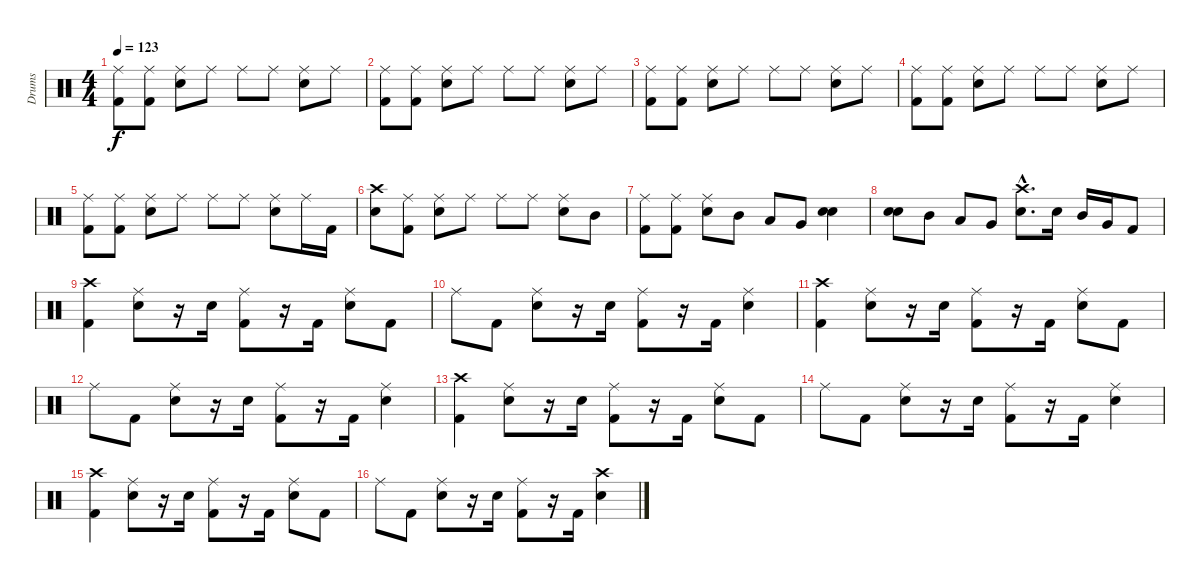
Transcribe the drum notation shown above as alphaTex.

\track ("Drums" "Drums") {instrument percussion}
\staff {score}
\articulation defaults
\ts (4 4)
\tempo 123
\clef neutral
\ks c
("Ride (middle)" "Kick (hit) 2").8{dy f} ("Ride (middle)" "Kick (hit) 2").8 ("Ride (middle)" "Snare (hit) 2").8 "Ride (middle)".8 "Ride (middle)".8 "Ride (middle)".8 ("Ride (middle)" "Snare (hit) 2").8 "Ride (middle)".8 |
("Ride (middle)" "Kick (hit) 2").8 ("Ride (middle)" "Kick (hit) 2").8 ("Ride (middle)" "Snare (hit) 2").8 "Ride (middle)".8 "Ride (middle)".8 "Ride (middle)".8 ("Ride (middle)" "Snare (hit) 2").8 "Ride (middle)".8 |
("Ride (middle)" "Kick (hit) 2").8 ("Ride (middle)" "Kick (hit) 2").8 ("Ride (middle)" "Snare (hit) 2").8 "Ride (middle)".8 "Ride (middle)".8 "Ride (middle)".8 ("Ride (middle)" "Snare (hit) 2").8 "Ride (middle)".8 |
("Ride (middle)" "Kick (hit) 2").8 ("Ride (middle)" "Kick (hit) 2").8 ("Ride (middle)" "Snare (hit) 2").8 "Ride (middle)".8 "Ride (middle)".8 "Ride (middle)".8 ("Ride (middle)" "Snare (hit) 2").8 "Ride (middle)".8 |
("Ride (middle)" "Kick (hit) 2").8 ("Ride (middle)" "Kick (hit) 2").8 ("Ride (middle)" "Snare (hit) 2").8 "Ride (middle)".8 "Ride (middle)".8 "Ride (middle)".8 ("Ride (middle)" "Snare (hit) 2").8 "Ride (middle)".16 "Kick (hit) 2".16 |
("Crash high (hit)" "Snare (hit) 2").8 ("Ride (middle)" "Kick (hit) 2").8 ("Ride (middle)" "Snare (hit) 2").8 "Ride (middle)".8 "Ride (middle)".8 "Ride (middle)".8 ("Ride (middle)" "Snare (hit) 2").8 "Mid Tom (hit)".8 |
("Ride (middle)" "Kick (hit) 2").8 ("Ride (middle)" "Kick (hit) 2").8 ("Ride (middle)" "Snare (hit) 2").8 "Mid Tom (hit)".8 "Low Tom (hit)".8 "Very Low Tom (hit)".8 ("Snare (hit) 2" "Snare (hit) 2").4 |
("Snare (hit) 2" "Snare (hit) 2").8 "Mid Tom (hit)".8 "Low Tom (hit)".8 "Very Low Tom (hit)".8 ("Crash high (hit)"{hac} "Snare (hit) 2"{hac}).8{d} "Snare (hit) 2".16 "Mid Tom (hit)".16 "Very Low Tom (hit)".16 "Kick (hit) 2".8 |
("Crash high (hit)" "Kick (hit) 2").4 ("Ride (middle)" "Snare (hit) 2").8 r.16 "Snare (hit) 2".16 ("Ride (middle)" "Kick (hit) 2").8 r.16 "Kick (hit) 2".16 ("Ride (middle)" "Snare (hit) 2").8 "Kick (hit) 2".8 |
"Ride (middle)".8 "Kick (hit) 2".8 ("Ride (middle)" "Snare (hit) 2").8 r.16 "Snare (hit) 2".16 ("Ride (middle)" "Kick (hit) 2").8 r.16 "Kick (hit) 2".16 ("Ride (middle)" "Snare (hit) 2").4 |
("Crash high (hit)" "Kick (hit) 2").4 ("Ride (middle)" "Snare (hit) 2").8 r.16 "Snare (hit) 2".16 ("Ride (middle)" "Kick (hit) 2").8 r.16 "Kick (hit) 2".16 ("Ride (middle)" "Snare (hit) 2").8 "Kick (hit) 2".8 |
"Ride (middle)".8 "Kick (hit) 2".8 ("Ride (middle)" "Snare (hit) 2").8 r.16 "Snare (hit) 2".16 ("Ride (middle)" "Kick (hit) 2").8 r.16 "Kick (hit) 2".16 ("Ride (middle)" "Snare (hit) 2").4 |
("Crash high (hit)" "Kick (hit) 2").4 ("Ride (middle)" "Snare (hit) 2").8 r.16 "Snare (hit) 2".16 ("Ride (middle)" "Kick (hit) 2").8 r.16 "Kick (hit) 2".16 ("Ride (middle)" "Snare (hit) 2").8 "Kick (hit) 2".8 |
"Ride (middle)".8 "Kick (hit) 2".8 ("Ride (middle)" "Snare (hit) 2").8 r.16 "Snare (hit) 2".16 ("Ride (middle)" "Kick (hit) 2").8 r.16 "Kick (hit) 2".16 ("Ride (middle)" "Snare (hit) 2").4 |
("Crash high (hit)" "Kick (hit) 2").4 ("Ride (middle)" "Snare (hit) 2").8 r.16 "Snare (hit) 2".16 ("Ride (middle)" "Kick (hit) 2").8 r.16 "Kick (hit) 2".16 ("Ride (middle)" "Snare (hit) 2").8 "Kick (hit) 2".8 |
"Ride (middle)".8 "Kick (hit) 2".8 ("Ride (middle)" "Snare (hit) 2").8 r.16 "Snare (hit) 2".16 ("Ride (middle)" "Kick (hit) 2").8 r.16 "Kick (hit) 2".16 ("Crash high (hit)" "Snare (hit) 2").4
